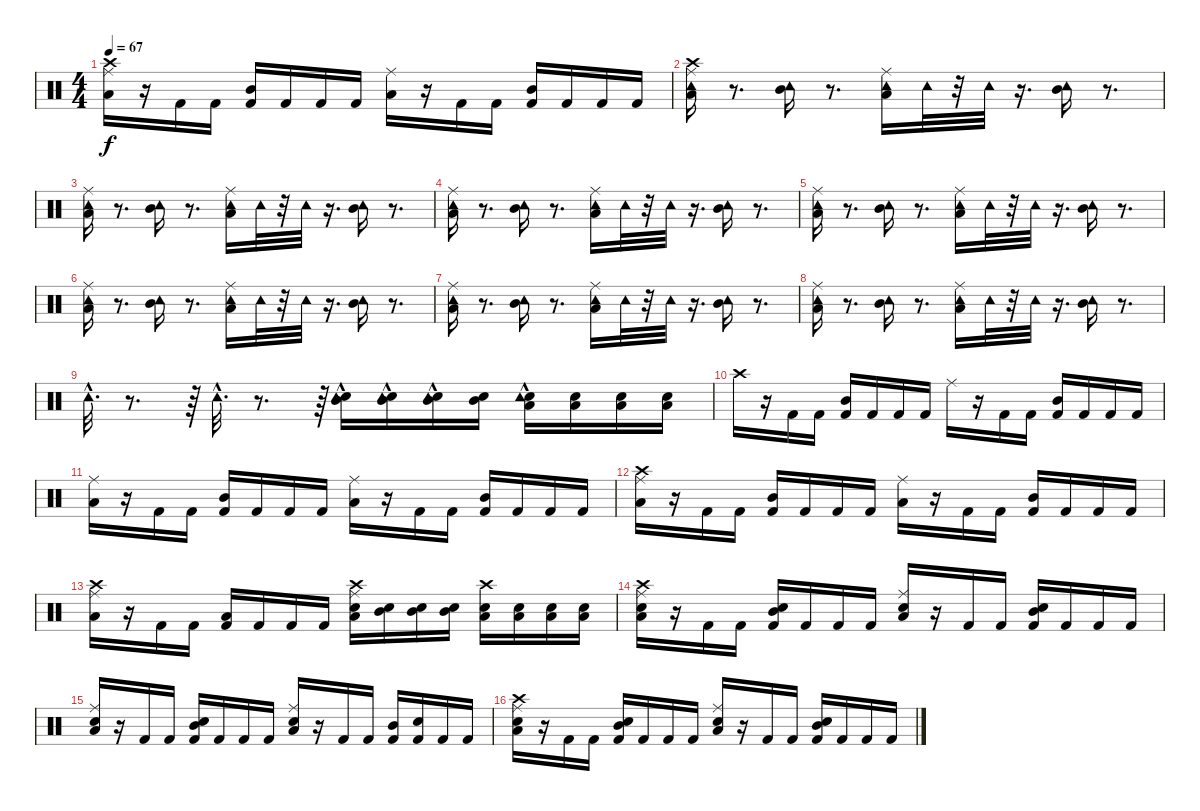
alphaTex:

\track "" {instrument percussion}
\staff {score}
\articulation defaults
\ts (4 4)
\tempo 67
\clef neutral
\ks c
("Crash high (hit)" "Low Floor Tom (hit)" "Ride (middle)").16{dy f} r.16 "Kick (hit) 2".16 "Kick (hit) 2".16 ("Kick (hit) 2" "Mid Tom (hit)").16 "Kick (hit) 2".16 "Kick (hit) 2".16 "Kick (hit) 2".16 ("Low Floor Tom (hit)" "Ride (middle)").16 r.16 "Kick (hit) 2".16 "Kick (hit) 2".16 ("Kick (hit) 2" "Mid Tom (hit)").16 "Kick (hit) 2".16 "Kick (hit) 2".16 "Kick (hit) 2".16 |
("Low Floor Tom (hit)" "Crash high (hit)" "Tambourine (hit)" "Ride (middle)").16 r.8{d} ("Tambourine (hit)" "Mid Tom (hit)").16 r.8{d} ("Low Floor Tom (hit)" "Tambourine (hit)" "Ride (middle)").16 "Tambourine (hit)".32 r.32 "Tambourine (hit)".32 r.16{d} ("Tambourine (hit)" "Mid Tom (hit)").16 r.8{d} |
("Ride (middle)" "Low Floor Tom (hit)" "Tambourine (hit)").16 r.8{d} ("Tambourine (hit)" "Mid Tom (hit)").16 r.8{d} ("Low Floor Tom (hit)" "Tambourine (hit)" "Ride (middle)").16 "Tambourine (hit)".32 r.32 "Tambourine (hit)".32 r.16{d} ("Tambourine (hit)" "Mid Tom (hit)").16 r.8{d} |
("Low Floor Tom (hit)" "Tambourine (hit)" "Ride (middle)").16 r.8{d} ("Tambourine (hit)" "Mid Tom (hit)").16 r.8{d} ("Low Floor Tom (hit)" "Tambourine (hit)" "Ride (middle)").16 "Tambourine (hit)".32 r.32 "Tambourine (hit)".32 r.16{d} ("Tambourine (hit)" "Mid Tom (hit)").16 r.8{d} |
("Low Floor Tom (hit)" "Tambourine (hit)" "Ride (middle)").16 r.8{d} ("Tambourine (hit)" "Mid Tom (hit)").16 r.8{d} ("Low Floor Tom (hit)" "Tambourine (hit)" "Ride (middle)").16 "Tambourine (hit)".32 r.32 "Tambourine (hit)".32 r.16{d} ("Tambourine (hit)" "Mid Tom (hit)").16 r.8{d} |
("Low Floor Tom (hit)" "Tambourine (hit)" "Ride (middle)").16 r.8{d} ("Tambourine (hit)" "Mid Tom (hit)").16 r.8{d} ("Low Floor Tom (hit)" "Tambourine (hit)" "Ride (middle)").16 "Tambourine (hit)".32 r.32 "Tambourine (hit)".32 r.16{d} ("Tambourine (hit)" "Mid Tom (hit)").16 r.8{d} |
("Ride (middle)" "Low Floor Tom (hit)" "Tambourine (hit)").16 r.8{d} ("Tambourine (hit)" "Mid Tom (hit)").16 r.8{d} ("Low Floor Tom (hit)" "Ride (middle)" "Tambourine (hit)").16 "Tambourine (hit)".32 r.32 "Tambourine (hit)".32 r.16{d} ("Mid Tom (hit)" "Tambourine (hit)").16 r.8{d} |
("Low Floor Tom (hit)" "Ride (middle)" "Tambourine (hit)").16 r.8{d} ("Mid Tom (hit)" "Tambourine (hit)").16 r.8{d} ("Low Floor Tom (hit)" "Ride (middle)" "Tambourine (hit)").16 "Tambourine (hit)".32 r.32 "Tambourine (hit)".32 r.16{d} ("Mid Tom (hit)" "Tambourine (hit)").16 r.8{d} |
"Tambourine (hit)"{hac}.32{d} r.8{d} r.64 "Tambourine (hit)"{hac}.32{d} r.8{d} r.64 ("Electric Snare (hit)" "Mid Tom (hit)" "Tambourine (hit)"{hac}).16 ("Electric Snare (hit)" "Mid Tom (hit)" "Tambourine (hit)"{hac}).16 ("Electric Snare (hit)" "Mid Tom (hit)" "Tambourine (hit)"{hac}).16 ("Electric Snare (hit)" "Mid Tom (hit)").16 ("Snare (hit) 2" "Low Tom (hit)" "Tambourine (hit)"{hac}).16 ("Snare (hit) 2" "Low Tom (hit)").16 ("Snare (hit) 2" "Low Tom (hit)").16 ("Snare (hit) 2" "Low Tom (hit)").16 |
"Crash high (hit)".16 r.16 "Kick (hit) 2".16 "Kick (hit) 2".16 ("Mid Tom (hit)" "Kick (hit) 2").16 "Kick (hit) 2".16 "Kick (hit) 2".16 "Kick (hit) 2".16 "Ride (middle)".16 r.16 "Kick (hit) 2".16 "Kick (hit) 2".16 ("Mid Tom (hit)" "Kick (hit) 2").16 "Kick (hit) 2".16 "Kick (hit) 2".16 "Kick (hit) 2".16 |
("Low Floor Tom (hit)" "Ride (middle)").16 r.16 "Kick (hit) 2".16 "Kick (hit) 2".16 ("Mid Tom (hit)" "Kick (hit) 2").16 "Kick (hit) 2".16 "Kick (hit) 2".16 "Kick (hit) 2".16 ("Low Floor Tom (hit)" "Ride (middle)").16 r.16 "Kick (hit) 2".16 "Kick (hit) 2".16 ("Mid Tom (hit)" "Kick (hit) 2").16 "Kick (hit) 2".16 "Kick (hit) 2".16 "Kick (hit) 2".16 |
("Low Floor Tom (hit)" "Crash high (hit)" "Ride (middle)").16 r.16 "Kick (hit) 2".16 "Kick (hit) 2".16 ("Mid Tom (hit)" "Kick (hit) 2").16 "Kick (hit) 2".16 "Kick (hit) 2".16 "Kick (hit) 2".16 ("Low Floor Tom (hit)" "Ride (middle)").16 r.16 "Kick (hit) 2".16 "Kick (hit) 2".16 ("Mid Tom (hit)" "Kick (hit) 2").16 "Kick (hit) 2".16 "Kick (hit) 2".16 "Kick (hit) 2".16 |
("Crash high (hit)" "Low Floor Tom (hit)" "Ride (middle)").16 r.16 "Kick (hit) 2".16 "Kick (hit) 2".16 ("Kick (hit) 2" "Low Tom (hit)").16 "Kick (hit) 2".16 "Kick (hit) 2".16 "Kick (hit) 2".16 ("Electric Snare (hit)" "Crash high (hit)" "Low Floor Tom (hit)" "Ride (middle)").16 ("Electric Snare (hit)" "Mid Tom (hit)").16 ("Electric Snare (hit)" "Mid Tom (hit)").16 ("Electric Snare (hit)" "Mid Tom (hit)").16 ("Snare (hit) 2" "Crash high (hit)" "Low Floor Tom (hit)").16 ("Snare (hit) 2" "Low Tom (hit)").16 ("Snare (hit) 2" "Low Tom (hit)").16 ("Snare (hit) 2" "Low Tom (hit)").16 |
("Snare (hit) 2" "Low Floor Tom (hit)" "Crash high (hit)" "Ride (middle)").16 r.16 "Kick (hit) 2".16 "Kick (hit) 2".16 ("Snare (hit) 2" "Mid Tom (hit)" "Kick (hit) 2").16 "Kick (hit) 2".16 "Kick (hit) 2".16 "Kick (hit) 2".16 ("Snare (hit) 2" "Low Floor Tom (hit)" "Ride (middle)").16 r.16 "Kick (hit) 2".16 "Kick (hit) 2".16 ("Snare (hit) 2" "Mid Tom (hit)" "Kick (hit) 2").16 "Kick (hit) 2".16 "Kick (hit) 2".16 "Kick (hit) 2".16 |
("Snare (hit) 2" "Low Floor Tom (hit)" "Ride (middle)").16 r.16 "Kick (hit) 2".16 "Kick (hit) 2".16 ("Snare (hit) 2" "Mid Tom (hit)" "Kick (hit) 2").16 "Kick (hit) 2".16 "Kick (hit) 2".16 "Kick (hit) 2".16 ("Snare (hit) 2" "Low Floor Tom (hit)" "Ride (middle)").16 r.16 "Kick (hit) 2".16 "Kick (hit) 2".16 ("Mid Tom (hit)" "Kick (hit) 2").16 ("Snare (hit) 2" "Kick (hit) 2").16 "Kick (hit) 2".16 "Kick (hit) 2".16 |
("Snare (hit) 2" "Crash high (hit)" "Low Floor Tom (hit)" "Ride (middle)").16 r.16 "Kick (hit) 2".16 "Kick (hit) 2".16 ("Snare (hit) 2" "Mid Tom (hit)" "Kick (hit) 2").16 "Kick (hit) 2".16 "Kick (hit) 2".16 "Kick (hit) 2".16 ("Snare (hit) 2" "Low Floor Tom (hit)" "Ride (middle)").16 r.16 "Kick (hit) 2".16 "Kick (hit) 2".16 ("Snare (hit) 2" "Mid Tom (hit)" "Kick (hit) 2").16 "Kick (hit) 2".16 "Kick (hit) 2".16 "Kick (hit) 2".16
